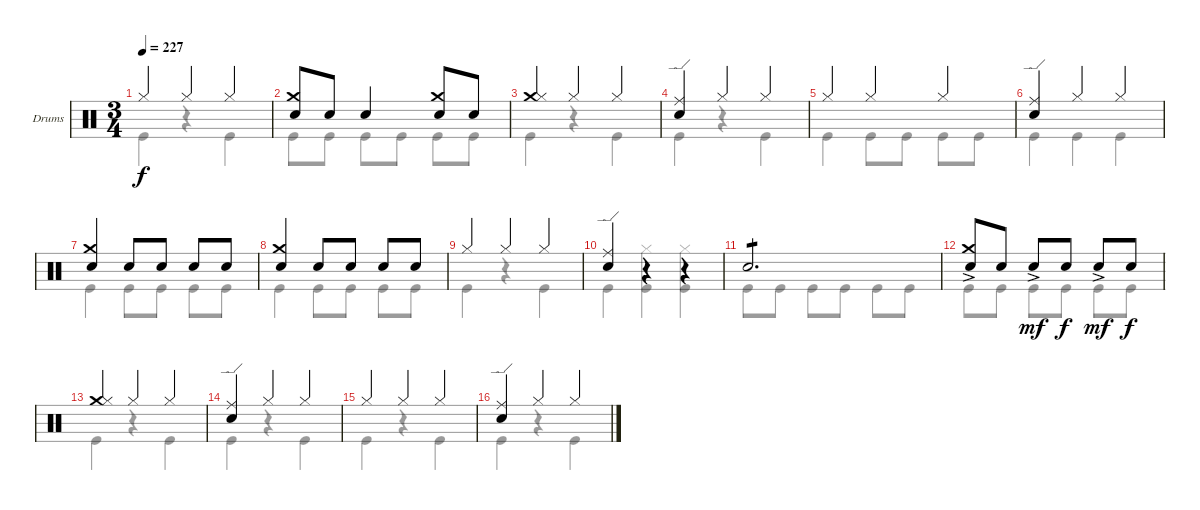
\bracketExtendMode groupsimilarinstruments
\firstSystemTrackNameOrientation horizontal
\otherSystemsTrackNameOrientation horizontal
\track ("Drumkit" "Drums") {instrument percussion}
\staff {score}
\articulation defaults
\voice
\ts (3 4)
\tempo 227
\clef neutral
\ks c "Hi-Hat (closed)".4{dy f} "Hi-Hat (closed)".4 "Hi-Hat (closed)".4
|
("Crash medium (hit)" "Snare (hit) 2").8 "Snare (hit) 2".8 "Snare (hit) 2".4 ("Crash medium (hit)" "Snare (hit) 2").8 "Snare (hit) 2".8 |
("Crash medium (hit)" "Hi-Hat (closed)").4 "Hi-Hat (closed)".4 "Hi-Hat (closed)".4 |
("Ride (edge)" "Snare (hit) 2").4 "Hi-Hat (closed)".4 "Hi-Hat (closed)".4 |
"Hi-Hat (closed)".4 "Hi-Hat (closed)".4 "Hi-Hat (closed)".4 |
("Ride (edge)" "Snare (hit) 2").4 "Hi-Hat (closed)".4 "Hi-Hat (closed)".4 |
("Crash medium (hit)" "Snare (hit) 2").4 "Snare (hit) 2".8 "Snare (hit) 2".8 "Snare (hit) 2".8 "Snare (hit) 2".8 |
("Crash medium (hit)" "Snare (hit) 2").4 "Snare (hit) 2".8 "Snare (hit) 2".8 "Snare (hit) 2".8 "Snare (hit) 2".8 |
"Hi-Hat (closed)".4 "Hi-Hat (closed)".4 "Hi-Hat (closed)".4 |
("Ride (edge)" "Snare (hit) 2").4 r.4 r.4 |
"Snare (hit) 2".2{d tp 1} |
("Crash medium (hit)" "Snare (hit) 2"{ac}).8 "Snare (hit) 2".8 "Snare (hit) 2"{ac}.8{dy mf} "Snare (hit) 2".8{dy f} "Snare (hit) 2"{ac}.8{dy mf} "Snare (hit) 2".8{dy f} |
("Crash medium (hit)" "Hi-Hat (closed)").4 "Hi-Hat (closed)".4 "Hi-Hat (closed)".4 |
("Ride (edge)" "Snare (hit) 2").4 "Hi-Hat (closed)".4 "Hi-Hat (closed)".4 |
"Hi-Hat (closed)".4 "Hi-Hat (closed)".4 "Hi-Hat (closed)".4 |
("Ride (edge)" "Snare (hit) 2").4 "Hi-Hat (closed)".4 "Hi-Hat (closed)".4
\voice
\clef neutral
\ottava regular
\simile none
\ks c "Kick (hit)".4{dy f}
r.4 "Kick (hit)".4 |
"Kick (hit)".8 "Kick (hit)".8 "Kick (hit)".8 "Kick (hit)".8 "Kick (hit)".8 "Kick (hit)".8 |
"Kick (hit)".4 r.4 "Kick (hit)".4 |
"Kick (hit)".4 r.4 "Kick (hit)".4 |
"Kick (hit)".4 "Kick (hit)".8 "Kick (hit)".8 "Kick (hit)".8 "Kick (hit)".8 |
"Kick (hit)".4 "Kick (hit)".4 "Kick (hit)".4 |
"Kick (hit)".4 "Kick (hit)".8 "Kick (hit)".8 "Kick (hit)".8 "Kick (hit)".8 |
"Kick (hit)".4 "Kick (hit)".8 "Kick (hit)".8 "Kick (hit)".8 "Kick (hit)".8 |
"Kick (hit)".4 r.4 "Kick (hit)".4 |
"Kick (hit)".4 ("Hi-Hat (closed)" "Kick (hit)").4 ("Hi-Hat (closed)" "Kick (hit)").4 |
"Kick (hit)".8 "Kick (hit)".8 "Kick (hit)".8 "Kick (hit)".8 "Kick (hit)".8 "Kick (hit)".8 |
"Kick (hit)".8 "Kick (hit)".8 "Kick (hit)".8 "Kick (hit)".8 "Kick (hit)".8 "Kick (hit)".8 |
"Kick (hit)".4 r.4 "Kick (hit)".4 |
"Kick (hit)".4 r.4 "Kick (hit)".4 |
"Kick (hit)".4 r.4 "Kick (hit)".4 |
"Kick (hit)".4 r.4 "Kick (hit)".4
